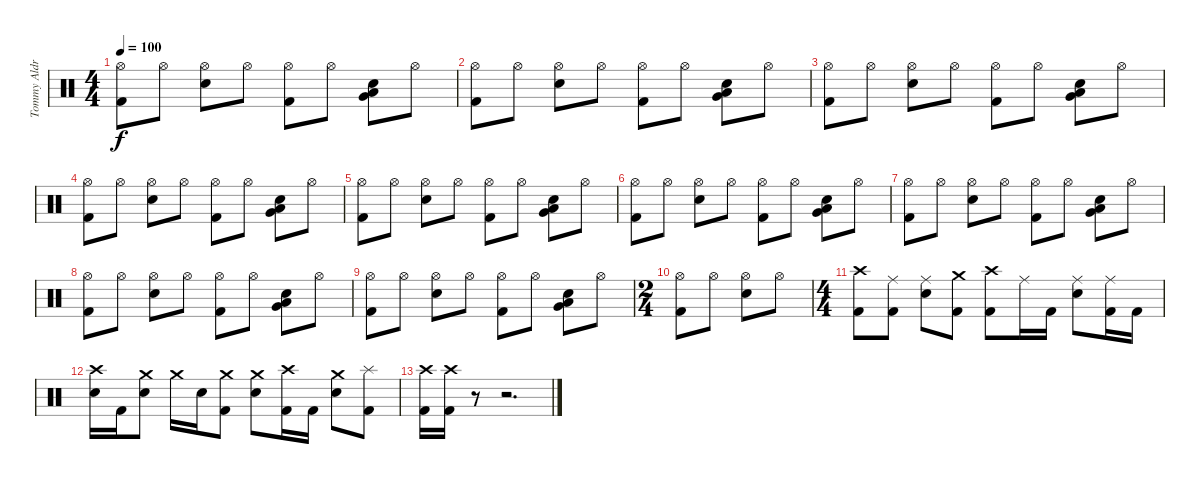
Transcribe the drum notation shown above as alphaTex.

\track ("Tommy Aldridge" "Tommy Aldr") {instrument percussion}
\staff {score}
\articulation defaults
\ts (4 4)
\tempo 100
\clef neutral
\ks aminor
("Hi-Hat (open)" "Kick (hit) 2").8{dy f} "Hi-Hat (open)".8 ("Hi-Hat (open)" "Electric Snare (hit)").8 "Hi-Hat (open)".8 ("Hi-Hat (open)" "Kick (hit) 2").8 "Hi-Hat (open)".8 ("Very Low Tom (hit)" "Low Floor Tom (hit)" "Electric Snare (hit)").8 "Hi-Hat (open)".8 |
("Hi-Hat (open)" "Kick (hit) 2").8 "Hi-Hat (open)".8 ("Hi-Hat (open)" "Electric Snare (hit)").8 "Hi-Hat (open)".8 ("Hi-Hat (open)" "Kick (hit) 2").8 "Hi-Hat (open)".8 ("Very Low Tom (hit)" "Low Floor Tom (hit)" "Electric Snare (hit)").8 "Hi-Hat (open)".8 |
("Hi-Hat (open)" "Kick (hit) 2").8 "Hi-Hat (open)".8 ("Hi-Hat (open)" "Electric Snare (hit)").8 "Hi-Hat (open)".8 ("Hi-Hat (open)" "Kick (hit) 2").8 "Hi-Hat (open)".8 ("Very Low Tom (hit)" "Low Floor Tom (hit)" "Electric Snare (hit)").8 "Hi-Hat (open)".8 |
("Hi-Hat (open)" "Kick (hit) 2").8 "Hi-Hat (open)".8 ("Hi-Hat (open)" "Electric Snare (hit)").8 "Hi-Hat (open)".8 ("Hi-Hat (open)" "Kick (hit) 2").8 "Hi-Hat (open)".8 ("Very Low Tom (hit)" "Low Floor Tom (hit)" "Electric Snare (hit)").8 "Hi-Hat (open)".8 |
("Hi-Hat (open)" "Kick (hit) 2").8 "Hi-Hat (open)".8 ("Hi-Hat (open)" "Electric Snare (hit)").8 "Hi-Hat (open)".8 ("Hi-Hat (open)" "Kick (hit) 2").8 "Hi-Hat (open)".8 ("Very Low Tom (hit)" "Low Floor Tom (hit)" "Electric Snare (hit)").8 "Hi-Hat (open)".8 |
("Hi-Hat (open)" "Kick (hit) 2").8 "Hi-Hat (open)".8 ("Hi-Hat (open)" "Electric Snare (hit)").8 "Hi-Hat (open)".8 ("Hi-Hat (open)" "Kick (hit) 2").8 "Hi-Hat (open)".8 ("Very Low Tom (hit)" "Low Floor Tom (hit)" "Electric Snare (hit)").8 "Hi-Hat (open)".8 |
("Hi-Hat (open)" "Kick (hit) 2").8 "Hi-Hat (open)".8 ("Hi-Hat (open)" "Electric Snare (hit)").8 "Hi-Hat (open)".8 ("Hi-Hat (open)" "Kick (hit) 2").8 "Hi-Hat (open)".8 ("Very Low Tom (hit)" "Low Floor Tom (hit)" "Electric Snare (hit)").8 "Hi-Hat (open)".8 |
("Hi-Hat (open)" "Kick (hit) 2").8 "Hi-Hat (open)".8 ("Hi-Hat (open)" "Electric Snare (hit)").8 "Hi-Hat (open)".8 ("Hi-Hat (open)" "Kick (hit) 2").8 "Hi-Hat (open)".8 ("Very Low Tom (hit)" "Low Floor Tom (hit)" "Electric Snare (hit)").8 "Hi-Hat (open)".8 |
("Hi-Hat (open)" "Kick (hit) 2").8 "Hi-Hat (open)".8 ("Hi-Hat (open)" "Electric Snare (hit)").8 "Hi-Hat (open)".8 ("Hi-Hat (open)" "Kick (hit) 2").8 "Hi-Hat (open)".8 ("Very Low Tom (hit)" "Low Floor Tom (hit)" "Electric Snare (hit)").8 "Hi-Hat (open)".8 |
\ts (2 4)
("Hi-Hat (open)" "Kick (hit) 2").8 "Hi-Hat (open)".8 ("Hi-Hat (open)" "Electric Snare (hit)").8 "Hi-Hat (open)".8 |
\ts (4 4)
("Crash high (hit)" "Kick (hit) 2").8 ("Ride (middle)" "Kick (hit) 2").8 ("Ride (middle)" "Electric Snare (hit)").8 ("Crash medium (hit)" "Kick (hit) 2").8 ("Crash high (hit)" "Kick (hit) 2").8 "Ride (middle)".16 "Kick (hit) 2".16 ("Ride (middle)" "Electric Snare (hit)").8 ("Ride (middle)" "Kick (hit) 2").16 "Kick (hit) 2".16 |
("Crash high (hit)" "Electric Snare (hit)").16 "Kick (hit) 2".16 ("Crash medium (hit)" "Electric Snare (hit)").8 "Crash medium (hit)".16 "Electric Snare (hit)".16 ("Crash medium (hit)" "Kick (hit) 2").8 ("Crash medium (hit)" "Electric Snare (hit)").8 ("Crash high (hit)" "Kick (hit) 2").16 "Kick (hit) 2".16 ("Crash medium (hit)" "Electric Snare (hit)").8 ("Splash (hit)" "Kick (hit) 2").8 |
("Crash high (hit)" "Kick (hit) 2").16 ("Crash high (hit)" "Kick (hit) 2").16 r.8 r.2{d}
